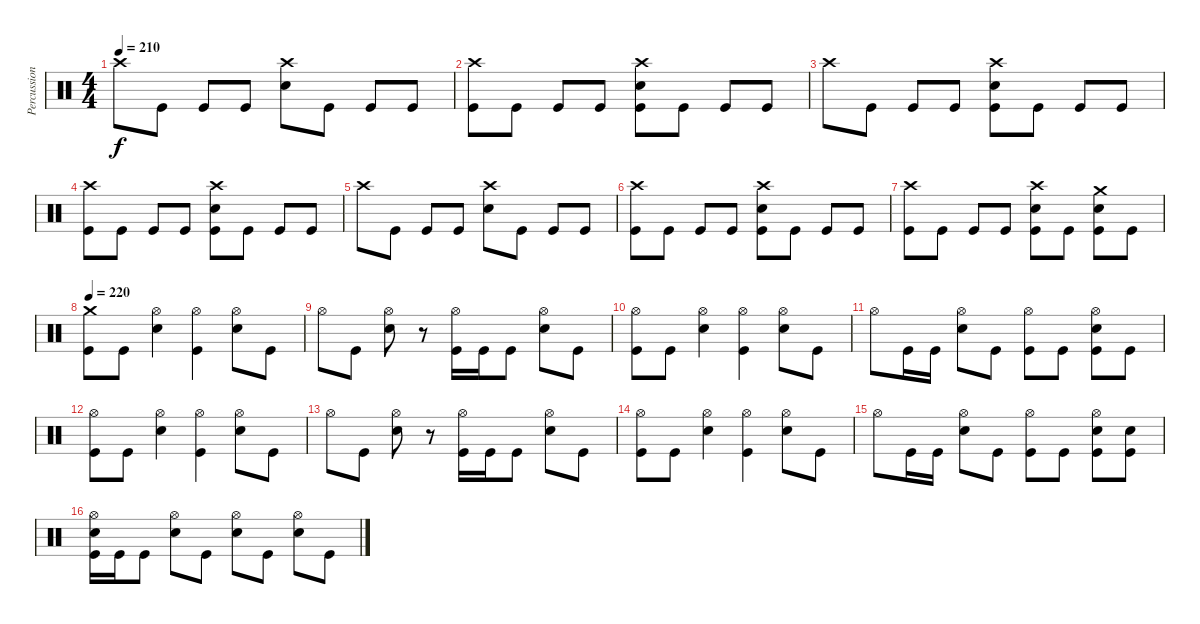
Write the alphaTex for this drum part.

\track ("Percussion" "Percussion") {instrument percussion}
\staff {score}
\articulation defaults
\ts (4 4)
\tempo 210
\clef neutral
\ks c "Crash high (hit)".8{dy f} "Kick (hit)".8 "Kick (hit)".8 "Kick (hit)".8
("Crash high (hit)" "Snare (hit) 2").8 "Kick (hit)".8 "Kick (hit)".8 "Kick (hit)".8 |
("Crash high (hit)" "Kick (hit)").8 "Kick (hit)".8 "Kick (hit)".8 "Kick (hit)".8 ("Crash high (hit)" "Snare (hit) 2" "Kick (hit)").8 "Kick (hit)".8 "Kick (hit)".8 "Kick (hit)".8 |
"Crash high (hit)".8 "Kick (hit)".8 "Kick (hit)".8 "Kick (hit)".8 ("Crash high (hit)" "Snare (hit) 2" "Kick (hit)").8 "Kick (hit)".8 "Kick (hit)".8 "Kick (hit)".8 |
("Crash high (hit)" "Kick (hit)").8 "Kick (hit)".8 "Kick (hit)".8 "Kick (hit)".8 ("Crash high (hit)" "Snare (hit) 2" "Kick (hit)").8 "Kick (hit)".8 "Kick (hit)".8 "Kick (hit)".8 |
"Crash high (hit)".8 "Kick (hit)".8 "Kick (hit)".8 "Kick (hit)".8 ("Crash high (hit)" "Snare (hit) 2").8 "Kick (hit)".8 "Kick (hit)".8 "Kick (hit)".8 |
("Crash high (hit)" "Kick (hit)").8 "Kick (hit)".8 "Kick (hit)".8 "Kick (hit)".8 ("Crash high (hit)" "Snare (hit) 2" "Kick (hit)").8 "Kick (hit)".8 "Kick (hit)".8 "Kick (hit)".8 |
("Crash high (hit)" "Kick (hit)").8 "Kick (hit)".8 "Kick (hit)".8 "Kick (hit)".8 ("Crash high (hit)" "Snare (hit) 2" "Kick (hit)").8 "Kick (hit)".8 ("Crash medium (hit)" "Snare (hit) 2" "Kick (hit)").8 "Kick (hit)".8 |
\tempo 220
("Crash medium (hit)" "Kick (hit)").8 "Kick (hit)".8 ("Hi-Hat (open)" "Snare (hit) 2").4 ("Hi-Hat (open)" "Kick (hit)").4 ("Hi-Hat (open)" "Snare (hit) 2").8 "Kick (hit)".8 |
"Hi-Hat (open)".8 "Kick (hit)".8 ("Hi-Hat (open)" "Snare (hit) 2").8 r.8 ("Hi-Hat (open)" "Kick (hit)").16 "Kick (hit)".16 "Kick (hit)".8 ("Hi-Hat (open)" "Snare (hit) 2").8 "Kick (hit)".8 |
("Hi-Hat (open)" "Kick (hit)").8 "Kick (hit)".8 ("Hi-Hat (open)" "Snare (hit) 2").4 ("Hi-Hat (open)" "Kick (hit)").4 ("Hi-Hat (open)" "Snare (hit) 2").8 "Kick (hit)".8 |
"Hi-Hat (open)".8 "Kick (hit)".16 "Kick (hit)".16 ("Hi-Hat (open)" "Snare (hit) 2").8 "Kick (hit)".8 ("Hi-Hat (open)" "Kick (hit)").8 "Kick (hit)".8 ("Hi-Hat (open)" "Snare (hit) 2" "Kick (hit)").8 "Kick (hit)".8 |
("Hi-Hat (open)" "Kick (hit)").8 "Kick (hit)".8 ("Hi-Hat (open)" "Snare (hit) 2").4 ("Hi-Hat (open)" "Kick (hit)").4 ("Hi-Hat (open)" "Snare (hit) 2").8 "Kick (hit)".8 |
"Hi-Hat (open)".8 "Kick (hit)".8 ("Hi-Hat (open)" "Snare (hit) 2").8 r.8 ("Hi-Hat (open)" "Kick (hit)").16 "Kick (hit)".16 "Kick (hit)".8 ("Hi-Hat (open)" "Snare (hit) 2").8 "Kick (hit)".8 |
("Hi-Hat (open)" "Kick (hit)").8 "Kick (hit)".8 ("Hi-Hat (open)" "Snare (hit) 2").4 ("Hi-Hat (open)" "Kick (hit)").4 ("Hi-Hat (open)" "Snare (hit) 2").8 "Kick (hit)".8 |
"Hi-Hat (open)".8 "Kick (hit)".16 "Kick (hit)".16 ("Hi-Hat (open)" "Snare (hit) 2").8 "Kick (hit)".8 ("Hi-Hat (open)" "Kick (hit)").8 "Kick (hit)".8 ("Hi-Hat (open)" "Snare (hit) 2" "Kick (hit)").8 ("Snare (hit) 2" "Kick (hit)").8 |
("Hi-Hat (open)" "Snare (hit) 2" "Kick (hit)").16 "Kick (hit)".16 "Kick (hit)".8 ("Hi-Hat (open)" "Snare (hit) 2").8 "Kick (hit)".8 ("Hi-Hat (open)" "Snare (hit) 2").8 "Kick (hit)".8 ("Hi-Hat (open)" "Snare (hit) 2").8 "Kick (hit)".8
